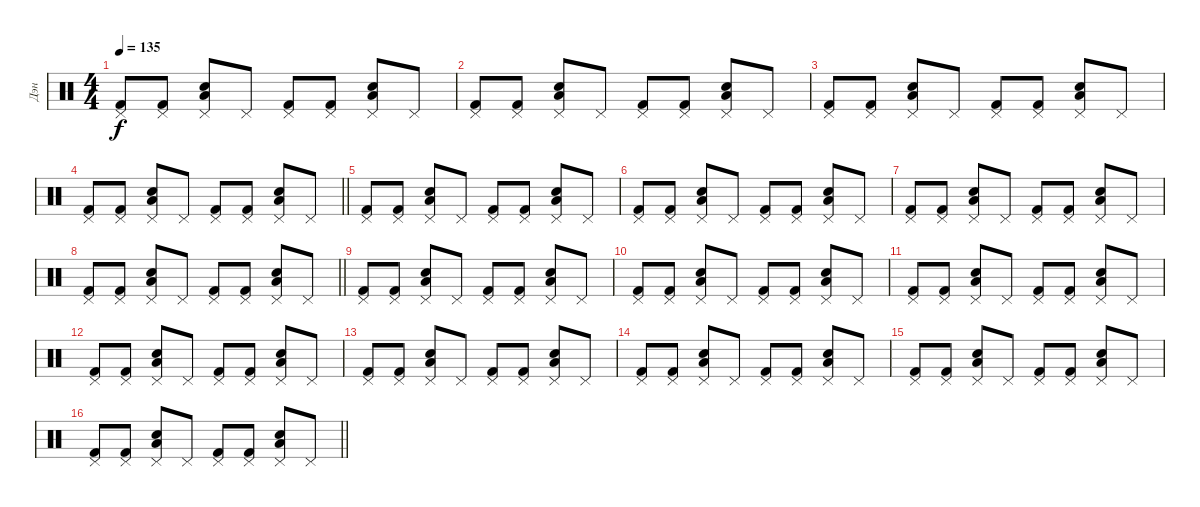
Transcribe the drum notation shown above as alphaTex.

\track ("Дэн" "Дэн") {instrument percussion}
\staff {score}
\articulation defaults
\ts (4 4)
\tempo 135
\clef neutral
\ks c
("Pedal Hi-Hat (hit)" "Kick (hit) 2").8{dy f} ("Pedal Hi-Hat (hit)" "Kick (hit) 2").8 ("Snare (hit) 2" "Low Tom (hit)" "Pedal Hi-Hat (hit)").8 "Pedal Hi-Hat (hit)".8 ("Pedal Hi-Hat (hit)" "Kick (hit) 2").8 ("Pedal Hi-Hat (hit)" "Kick (hit) 2").8 ("Snare (hit) 2" "Low Tom (hit)" "Pedal Hi-Hat (hit)").8 "Pedal Hi-Hat (hit)".8 |
("Pedal Hi-Hat (hit)" "Kick (hit) 2").8 ("Pedal Hi-Hat (hit)" "Kick (hit) 2").8 ("Snare (hit) 2" "Low Tom (hit)" "Pedal Hi-Hat (hit)").8 "Pedal Hi-Hat (hit)".8 ("Pedal Hi-Hat (hit)" "Kick (hit) 2").8 ("Pedal Hi-Hat (hit)" "Kick (hit) 2").8 ("Snare (hit) 2" "Low Tom (hit)" "Pedal Hi-Hat (hit)").8 "Pedal Hi-Hat (hit)".8 |
("Pedal Hi-Hat (hit)" "Kick (hit) 2").8 ("Pedal Hi-Hat (hit)" "Kick (hit) 2").8 ("Snare (hit) 2" "Low Tom (hit)" "Pedal Hi-Hat (hit)").8 "Pedal Hi-Hat (hit)".8 ("Pedal Hi-Hat (hit)" "Kick (hit) 2").8 ("Pedal Hi-Hat (hit)" "Kick (hit) 2").8 ("Snare (hit) 2" "Low Tom (hit)" "Pedal Hi-Hat (hit)").8 "Pedal Hi-Hat (hit)".8 |
\barLineRight lightlight
("Pedal Hi-Hat (hit)" "Kick (hit) 2").8 ("Pedal Hi-Hat (hit)" "Kick (hit) 2").8 ("Snare (hit) 2" "Low Tom (hit)" "Pedal Hi-Hat (hit)").8 "Pedal Hi-Hat (hit)".8 ("Pedal Hi-Hat (hit)" "Kick (hit) 2").8 ("Pedal Hi-Hat (hit)" "Kick (hit) 2").8 ("Snare (hit) 2" "Low Tom (hit)" "Pedal Hi-Hat (hit)").8 "Pedal Hi-Hat (hit)".8 |
("Pedal Hi-Hat (hit)" "Kick (hit) 2").8 ("Pedal Hi-Hat (hit)" "Kick (hit) 2").8 ("Snare (hit) 2" "Low Tom (hit)" "Pedal Hi-Hat (hit)").8 "Pedal Hi-Hat (hit)".8 ("Pedal Hi-Hat (hit)" "Kick (hit) 2").8 ("Pedal Hi-Hat (hit)" "Kick (hit) 2").8 ("Snare (hit) 2" "Low Tom (hit)" "Pedal Hi-Hat (hit)").8 "Pedal Hi-Hat (hit)".8 |
("Pedal Hi-Hat (hit)" "Kick (hit) 2").8 ("Pedal Hi-Hat (hit)" "Kick (hit) 2").8 ("Snare (hit) 2" "Low Tom (hit)" "Pedal Hi-Hat (hit)").8 "Pedal Hi-Hat (hit)".8 ("Pedal Hi-Hat (hit)" "Kick (hit) 2").8 ("Pedal Hi-Hat (hit)" "Kick (hit) 2").8 ("Snare (hit) 2" "Low Tom (hit)" "Pedal Hi-Hat (hit)").8 "Pedal Hi-Hat (hit)".8 |
("Pedal Hi-Hat (hit)" "Kick (hit) 2").8 ("Pedal Hi-Hat (hit)" "Kick (hit) 2").8 ("Snare (hit) 2" "Low Tom (hit)" "Pedal Hi-Hat (hit)").8 "Pedal Hi-Hat (hit)".8 ("Pedal Hi-Hat (hit)" "Kick (hit) 2").8 ("Pedal Hi-Hat (hit)" "Kick (hit) 2").8 ("Snare (hit) 2" "Low Tom (hit)" "Pedal Hi-Hat (hit)").8 "Pedal Hi-Hat (hit)".8 |
\barLineRight lightlight
("Pedal Hi-Hat (hit)" "Kick (hit) 2").8 ("Pedal Hi-Hat (hit)" "Kick (hit) 2").8 ("Snare (hit) 2" "Low Tom (hit)" "Pedal Hi-Hat (hit)").8 "Pedal Hi-Hat (hit)".8 ("Pedal Hi-Hat (hit)" "Kick (hit) 2").8 ("Pedal Hi-Hat (hit)" "Kick (hit) 2").8 ("Snare (hit) 2" "Low Tom (hit)" "Pedal Hi-Hat (hit)").8 "Pedal Hi-Hat (hit)".8 |
("Pedal Hi-Hat (hit)" "Kick (hit) 2").8 ("Pedal Hi-Hat (hit)" "Kick (hit) 2").8 ("Snare (hit) 2" "Low Tom (hit)" "Pedal Hi-Hat (hit)").8 "Pedal Hi-Hat (hit)".8 ("Pedal Hi-Hat (hit)" "Kick (hit) 2").8 ("Pedal Hi-Hat (hit)" "Kick (hit) 2").8 ("Snare (hit) 2" "Low Tom (hit)" "Pedal Hi-Hat (hit)").8 "Pedal Hi-Hat (hit)".8 |
("Pedal Hi-Hat (hit)" "Kick (hit) 2").8 ("Pedal Hi-Hat (hit)" "Kick (hit) 2").8 ("Snare (hit) 2" "Low Tom (hit)" "Pedal Hi-Hat (hit)").8 "Pedal Hi-Hat (hit)".8 ("Pedal Hi-Hat (hit)" "Kick (hit) 2").8 ("Pedal Hi-Hat (hit)" "Kick (hit) 2").8 ("Snare (hit) 2" "Low Tom (hit)" "Pedal Hi-Hat (hit)").8 "Pedal Hi-Hat (hit)".8 |
("Pedal Hi-Hat (hit)" "Kick (hit) 2").8 ("Pedal Hi-Hat (hit)" "Kick (hit) 2").8 ("Snare (hit) 2" "Low Tom (hit)" "Pedal Hi-Hat (hit)").8 "Pedal Hi-Hat (hit)".8 ("Pedal Hi-Hat (hit)" "Kick (hit) 2").8 ("Pedal Hi-Hat (hit)" "Kick (hit) 2").8 ("Snare (hit) 2" "Low Tom (hit)" "Pedal Hi-Hat (hit)").8 "Pedal Hi-Hat (hit)".8 |
("Pedal Hi-Hat (hit)" "Kick (hit) 2").8 ("Pedal Hi-Hat (hit)" "Kick (hit) 2").8 ("Snare (hit) 2" "Low Tom (hit)" "Pedal Hi-Hat (hit)").8 "Pedal Hi-Hat (hit)".8 ("Pedal Hi-Hat (hit)" "Kick (hit) 2").8 ("Pedal Hi-Hat (hit)" "Kick (hit) 2").8 ("Snare (hit) 2" "Low Tom (hit)" "Pedal Hi-Hat (hit)").8 "Pedal Hi-Hat (hit)".8 |
("Pedal Hi-Hat (hit)" "Kick (hit) 2").8 ("Pedal Hi-Hat (hit)" "Kick (hit) 2").8 ("Snare (hit) 2" "Low Tom (hit)" "Pedal Hi-Hat (hit)").8 "Pedal Hi-Hat (hit)".8 ("Pedal Hi-Hat (hit)" "Kick (hit) 2").8 ("Pedal Hi-Hat (hit)" "Kick (hit) 2").8 ("Snare (hit) 2" "Low Tom (hit)" "Pedal Hi-Hat (hit)").8 "Pedal Hi-Hat (hit)".8 |
("Pedal Hi-Hat (hit)" "Kick (hit) 2").8 ("Pedal Hi-Hat (hit)" "Kick (hit) 2").8 ("Snare (hit) 2" "Low Tom (hit)" "Pedal Hi-Hat (hit)").8 "Pedal Hi-Hat (hit)".8 ("Pedal Hi-Hat (hit)" "Kick (hit) 2").8 ("Pedal Hi-Hat (hit)" "Kick (hit) 2").8 ("Snare (hit) 2" "Low Tom (hit)" "Pedal Hi-Hat (hit)").8 "Pedal Hi-Hat (hit)".8 |
("Pedal Hi-Hat (hit)" "Kick (hit) 2").8 ("Pedal Hi-Hat (hit)" "Kick (hit) 2").8 ("Snare (hit) 2" "Low Tom (hit)" "Pedal Hi-Hat (hit)").8 "Pedal Hi-Hat (hit)".8 ("Pedal Hi-Hat (hit)" "Kick (hit) 2").8 ("Pedal Hi-Hat (hit)" "Kick (hit) 2").8 ("Snare (hit) 2" "Low Tom (hit)" "Pedal Hi-Hat (hit)").8 "Pedal Hi-Hat (hit)".8 |
\barLineRight lightlight
("Pedal Hi-Hat (hit)" "Kick (hit) 2").8 ("Pedal Hi-Hat (hit)" "Kick (hit) 2").8 ("Snare (hit) 2" "Low Tom (hit)" "Pedal Hi-Hat (hit)").8 "Pedal Hi-Hat (hit)".8 ("Pedal Hi-Hat (hit)" "Kick (hit) 2").8 ("Pedal Hi-Hat (hit)" "Kick (hit) 2").8 ("Snare (hit) 2" "Low Tom (hit)" "Pedal Hi-Hat (hit)").8 "Pedal Hi-Hat (hit)".8
